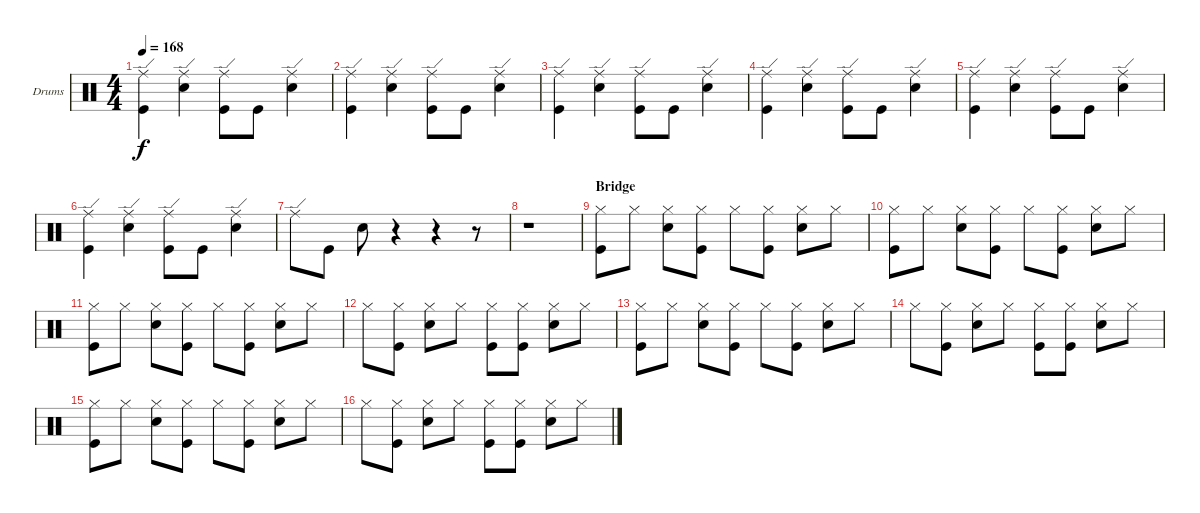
\bracketExtendMode groupsimilarinstruments
\firstSystemTrackNameOrientation horizontal
\otherSystemsTrackNameOrientation horizontal
\track ("Drumkit" "Drums") {instrument percussion}
\staff {score}
\articulation defaults
\ts (4 4)
\tempo 168
\clef neutral
\ks c
("Kick (hit)" "Ride (edge)").4{dy f} ("Snare (hit) 2" "Ride (edge)").4 ("Kick (hit)" "Ride (edge)").8 "Kick (hit)".8 ("Snare (hit) 2" "Ride (edge)").4 |
("Kick (hit)" "Ride (edge)").4 ("Snare (hit) 2" "Ride (edge)").4 ("Kick (hit)" "Ride (edge)").8 "Kick (hit)".8 ("Snare (hit) 2" "Ride (edge)").4 |
("Kick (hit)" "Ride (edge)").4 ("Snare (hit) 2" "Ride (edge)").4 ("Kick (hit)" "Ride (edge)").8 "Kick (hit)".8 ("Snare (hit) 2" "Ride (edge)").4 |
("Kick (hit)" "Ride (edge)").4 ("Snare (hit) 2" "Ride (edge)").4 ("Kick (hit)" "Ride (edge)").8 "Kick (hit)".8 ("Snare (hit) 2" "Ride (edge)").4 |
("Kick (hit)" "Ride (edge)").4 ("Snare (hit) 2" "Ride (edge)").4 ("Kick (hit)" "Ride (edge)").8 "Kick (hit)".8 ("Snare (hit) 2" "Ride (edge)").4 |
("Kick (hit)" "Ride (edge)").4 ("Snare (hit) 2" "Ride (edge)").4 ("Kick (hit)" "Ride (edge)").8 "Kick (hit)".8 ("Snare (hit) 2" "Ride (edge)").4 |
"Ride (edge)".8 "Kick (hit)".8 "Snare (hit) 2".8 r.4 r.4 r.8 |
r.1 |
\section ("" "Bridge")
("Kick (hit)" "Hi-Hat (closed)").8 "Hi-Hat (closed)".8 ("Snare (hit) 2" "Hi-Hat (closed)").8 ("Kick (hit)" "Hi-Hat (closed)").8 "Hi-Hat (closed)".8 ("Kick (hit)" "Hi-Hat (closed)").8 ("Snare (hit) 2" "Hi-Hat (closed)").8 "Hi-Hat (closed)".8 |
("Kick (hit)" "Hi-Hat (closed)").8 "Hi-Hat (closed)".8 ("Snare (hit) 2" "Hi-Hat (closed)").8 ("Kick (hit)" "Hi-Hat (closed)").8 "Hi-Hat (closed)".8 ("Kick (hit)" "Hi-Hat (closed)").8 ("Snare (hit) 2" "Hi-Hat (closed)").8 "Hi-Hat (closed)".8 |
("Kick (hit)" "Hi-Hat (closed)").8 "Hi-Hat (closed)".8 ("Snare (hit) 2" "Hi-Hat (closed)").8 ("Kick (hit)" "Hi-Hat (closed)").8 "Hi-Hat (closed)".8 ("Kick (hit)" "Hi-Hat (closed)").8 ("Snare (hit) 2" "Hi-Hat (closed)").8 "Hi-Hat (closed)".8 |
"Hi-Hat (closed)".8 ("Hi-Hat (closed)" "Kick (hit)").8 ("Snare (hit) 2" "Hi-Hat (closed)").8 "Hi-Hat (closed)".8 ("Hi-Hat (closed)" "Kick (hit)").8 ("Kick (hit)" "Hi-Hat (closed)").8 ("Snare (hit) 2" "Hi-Hat (closed)").8 "Hi-Hat (closed)".8 |
("Kick (hit)" "Hi-Hat (closed)").8 "Hi-Hat (closed)".8 ("Snare (hit) 2" "Hi-Hat (closed)").8 ("Kick (hit)" "Hi-Hat (closed)").8 "Hi-Hat (closed)".8 ("Kick (hit)" "Hi-Hat (closed)").8 ("Snare (hit) 2" "Hi-Hat (closed)").8 "Hi-Hat (closed)".8 |
"Hi-Hat (closed)".8 ("Hi-Hat (closed)" "Kick (hit)").8 ("Snare (hit) 2" "Hi-Hat (closed)").8 "Hi-Hat (closed)".8 ("Hi-Hat (closed)" "Kick (hit)").8 ("Kick (hit)" "Hi-Hat (closed)").8 ("Snare (hit) 2" "Hi-Hat (closed)").8 "Hi-Hat (closed)".8 |
("Kick (hit)" "Hi-Hat (closed)").8 "Hi-Hat (closed)".8 ("Snare (hit) 2" "Hi-Hat (closed)").8 ("Kick (hit)" "Hi-Hat (closed)").8 "Hi-Hat (closed)".8 ("Kick (hit)" "Hi-Hat (closed)").8 ("Snare (hit) 2" "Hi-Hat (closed)").8 "Hi-Hat (closed)".8 |
"Hi-Hat (closed)".8 ("Hi-Hat (closed)" "Kick (hit)").8 ("Snare (hit) 2" "Hi-Hat (closed)").8 "Hi-Hat (closed)".8 ("Hi-Hat (closed)" "Kick (hit)").8 ("Kick (hit)" "Hi-Hat (closed)").8 ("Snare (hit) 2" "Hi-Hat (closed)").8 "Hi-Hat (closed)".8
